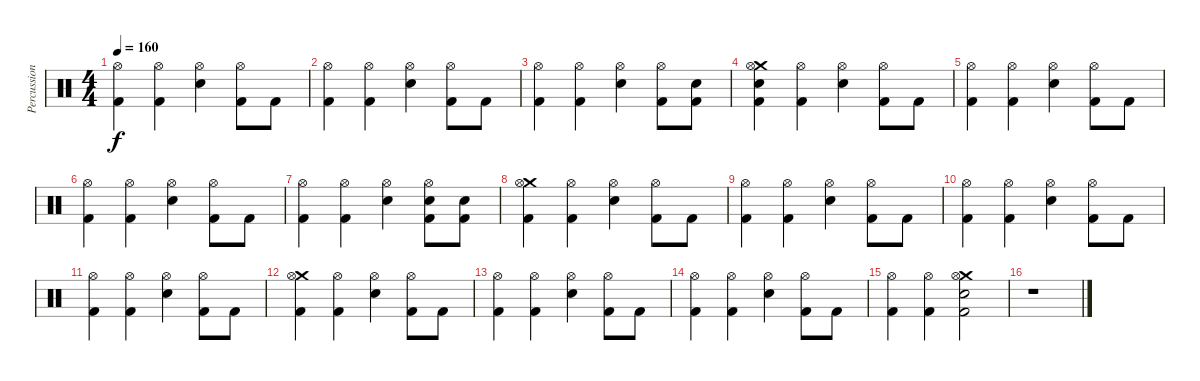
\track ("Percussion" "Percussion") {instrument percussion}
\staff {score}
\articulation defaults
\ts (4 4)
\tempo 160
\clef neutral
\ks c
("Hi-Hat (open)" "Kick (hit) 2").4{dy f} ("Hi-Hat (open)" "Kick (hit) 2").4 ("Hi-Hat (open)" "Electric Snare (hit)").4 ("Hi-Hat (open)" "Kick (hit) 2").8 "Kick (hit) 2".8 |
("Hi-Hat (open)" "Kick (hit) 2").4 ("Hi-Hat (open)" "Kick (hit) 2").4 ("Hi-Hat (open)" "Electric Snare (hit)").4 ("Hi-Hat (open)" "Kick (hit) 2").8 "Kick (hit) 2".8 |
("Hi-Hat (open)" "Kick (hit) 2").4 ("Hi-Hat (open)" "Kick (hit) 2").4 ("Hi-Hat (open)" "Electric Snare (hit)").4 ("Hi-Hat (open)" "Kick (hit) 2").8 ("Electric Snare (hit)" "Kick (hit) 2").8 |
("Crash medium (hit)" "Hi-Hat (open)" "Electric Snare (hit)" "Kick (hit) 2").4 ("Hi-Hat (open)" "Kick (hit) 2").4 ("Hi-Hat (open)" "Electric Snare (hit)").4 ("Hi-Hat (open)" "Kick (hit) 2").8 "Kick (hit) 2".8 |
("Hi-Hat (open)" "Kick (hit) 2").4 ("Hi-Hat (open)" "Kick (hit) 2").4 ("Hi-Hat (open)" "Electric Snare (hit)").4 ("Hi-Hat (open)" "Kick (hit) 2").8 "Kick (hit) 2".8 |
("Hi-Hat (open)" "Kick (hit) 2").4 ("Hi-Hat (open)" "Kick (hit) 2").4 ("Hi-Hat (open)" "Electric Snare (hit)").4 ("Hi-Hat (open)" "Kick (hit) 2").8 "Kick (hit) 2".8 |
("Hi-Hat (open)" "Kick (hit) 2").4 ("Hi-Hat (open)" "Kick (hit) 2").4 ("Hi-Hat (open)" "Electric Snare (hit)").4 ("Hi-Hat (open)" "Electric Snare (hit)" "Kick (hit) 2").8 ("Electric Snare (hit)" "Kick (hit) 2").8 |
("Crash medium (hit)" "Hi-Hat (open)" "Kick (hit) 2").4 ("Hi-Hat (open)" "Kick (hit) 2").4 ("Hi-Hat (open)" "Electric Snare (hit)").4 ("Hi-Hat (open)" "Kick (hit) 2").8 "Kick (hit) 2".8 |
("Hi-Hat (open)" "Kick (hit) 2").4 ("Hi-Hat (open)" "Kick (hit) 2").4 ("Hi-Hat (open)" "Electric Snare (hit)").4 ("Hi-Hat (open)" "Kick (hit) 2").8 "Kick (hit) 2".8 |
("Hi-Hat (open)" "Kick (hit) 2").4 ("Hi-Hat (open)" "Kick (hit) 2").4 ("Hi-Hat (open)" "Electric Snare (hit)").4 ("Hi-Hat (open)" "Kick (hit) 2").8 "Kick (hit) 2".8 |
("Hi-Hat (open)" "Kick (hit) 2").4 ("Hi-Hat (open)" "Kick (hit) 2").4 ("Hi-Hat (open)" "Electric Snare (hit)").4 ("Hi-Hat (open)" "Kick (hit) 2").8 "Kick (hit) 2".8 |
("Crash medium (hit)" "Hi-Hat (open)" "Kick (hit) 2").4 ("Hi-Hat (open)" "Kick (hit) 2").4 ("Hi-Hat (open)" "Electric Snare (hit)").4 ("Hi-Hat (open)" "Kick (hit) 2").8 "Kick (hit) 2".8 |
("Hi-Hat (open)" "Kick (hit) 2").4 ("Hi-Hat (open)" "Kick (hit) 2").4 ("Hi-Hat (open)" "Electric Snare (hit)").4 ("Hi-Hat (open)" "Kick (hit) 2").8 "Kick (hit) 2".8 |
("Hi-Hat (open)" "Kick (hit) 2").4 ("Hi-Hat (open)" "Kick (hit) 2").4 ("Hi-Hat (open)" "Electric Snare (hit)").4 ("Hi-Hat (open)" "Kick (hit) 2").8 "Kick (hit) 2".8 |
("Hi-Hat (open)" "Kick (hit) 2").4 ("Hi-Hat (open)" "Kick (hit) 2").4 ("Crash medium (hit)" "Hi-Hat (open)" "Electric Snare (hit)" "Kick (hit) 2").2 |
r.1
